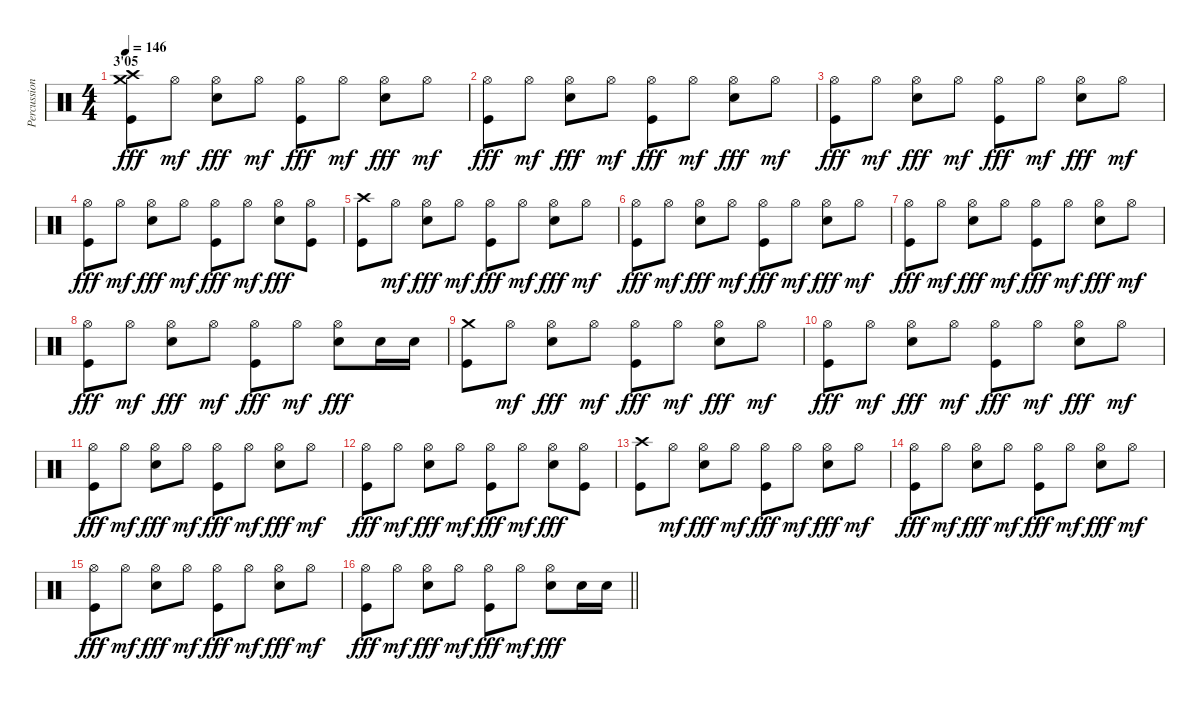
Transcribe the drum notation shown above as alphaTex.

\track ("Percussions" "Percussion") {instrument percussion}
\staff {score}
\articulation defaults
\ts (4 4)
\section ("" "3'05")
\tempo 146
\clef neutral
\ks c
("Crash high (hit)" "Crash medium (hit)" "Kick (hit)").8{dy fff} "Hi-Hat (open)".8{dy mf} ("Hi-Hat (open)" "Snare (hit) 2").8{dy fff} "Hi-Hat (open)".8{dy mf} ("Hi-Hat (open)" "Kick (hit)").8{dy fff} "Hi-Hat (open)".8{dy mf} ("Hi-Hat (open)" "Snare (hit) 2").8{dy fff} "Hi-Hat (open)".8{dy mf} |
("Hi-Hat (open)" "Kick (hit)").8{dy fff} "Hi-Hat (open)".8{dy mf} ("Hi-Hat (open)" "Snare (hit) 2").8{dy fff} "Hi-Hat (open)".8{dy mf} ("Hi-Hat (open)" "Kick (hit)").8{dy fff} "Hi-Hat (open)".8{dy mf} ("Hi-Hat (open)" "Snare (hit) 2").8{dy fff} "Hi-Hat (open)".8{dy mf} |
("Hi-Hat (open)" "Kick (hit)").8{dy fff} "Hi-Hat (open)".8{dy mf} ("Hi-Hat (open)" "Snare (hit) 2").8{dy fff} "Hi-Hat (open)".8{dy mf} ("Hi-Hat (open)" "Kick (hit)").8{dy fff} "Hi-Hat (open)".8{dy mf} ("Hi-Hat (open)" "Snare (hit) 2").8{dy fff} "Hi-Hat (open)".8{dy mf} |
("Hi-Hat (open)" "Kick (hit)").8{dy fff} "Hi-Hat (open)".8{dy mf} ("Hi-Hat (open)" "Snare (hit) 2").8{dy fff} "Hi-Hat (open)".8{dy mf} ("Hi-Hat (open)" "Kick (hit)").8{dy fff} "Hi-Hat (open)".8{dy mf} ("Hi-Hat (open)" "Snare (hit) 2").8{dy fff} ("Hi-Hat (open)" "Kick (hit)").8 |
("Crash high (hit)" "Kick (hit)").8 "Hi-Hat (open)".8{dy mf} ("Hi-Hat (open)" "Snare (hit) 2").8{dy fff} "Hi-Hat (open)".8{dy mf} ("Hi-Hat (open)" "Kick (hit)").8{dy fff} "Hi-Hat (open)".8{dy mf} ("Hi-Hat (open)" "Snare (hit) 2").8{dy fff} "Hi-Hat (open)".8{dy mf} |
("Hi-Hat (open)" "Kick (hit)").8{dy fff} "Hi-Hat (open)".8{dy mf} ("Hi-Hat (open)" "Snare (hit) 2").8{dy fff} "Hi-Hat (open)".8{dy mf} ("Hi-Hat (open)" "Kick (hit)").8{dy fff} "Hi-Hat (open)".8{dy mf} ("Hi-Hat (open)" "Snare (hit) 2").8{dy fff} "Hi-Hat (open)".8{dy mf} |
("Hi-Hat (open)" "Kick (hit)").8{dy fff} "Hi-Hat (open)".8{dy mf} ("Hi-Hat (open)" "Snare (hit) 2").8{dy fff} "Hi-Hat (open)".8{dy mf} ("Hi-Hat (open)" "Kick (hit)").8{dy fff} "Hi-Hat (open)".8{dy mf} ("Hi-Hat (open)" "Snare (hit) 2").8{dy fff} "Hi-Hat (open)".8{dy mf} |
("Hi-Hat (open)" "Kick (hit)").8{dy fff} "Hi-Hat (open)".8{dy mf} ("Hi-Hat (open)" "Snare (hit) 2").8{dy fff} "Hi-Hat (open)".8{dy mf} ("Hi-Hat (open)" "Kick (hit)").8{dy fff} "Hi-Hat (open)".8{dy mf} ("Hi-Hat (open)" "Snare (hit) 2").8{dy fff} "Snare (hit) 2".16 "Snare (hit) 2".16 |
("Crash medium (hit)" "Kick (hit)").8 "Hi-Hat (open)".8{dy mf} ("Hi-Hat (open)" "Snare (hit) 2").8{dy fff} "Hi-Hat (open)".8{dy mf} ("Hi-Hat (open)" "Kick (hit)").8{dy fff} "Hi-Hat (open)".8{dy mf} ("Hi-Hat (open)" "Snare (hit) 2").8{dy fff} "Hi-Hat (open)".8{dy mf} |
("Hi-Hat (open)" "Kick (hit)").8{dy fff} "Hi-Hat (open)".8{dy mf} ("Hi-Hat (open)" "Snare (hit) 2").8{dy fff} "Hi-Hat (open)".8{dy mf} ("Hi-Hat (open)" "Kick (hit)").8{dy fff} "Hi-Hat (open)".8{dy mf} ("Hi-Hat (open)" "Snare (hit) 2").8{dy fff} "Hi-Hat (open)".8{dy mf} |
("Hi-Hat (open)" "Kick (hit)").8{dy fff} "Hi-Hat (open)".8{dy mf} ("Hi-Hat (open)" "Snare (hit) 2").8{dy fff} "Hi-Hat (open)".8{dy mf} ("Hi-Hat (open)" "Kick (hit)").8{dy fff} "Hi-Hat (open)".8{dy mf} ("Hi-Hat (open)" "Snare (hit) 2").8{dy fff} "Hi-Hat (open)".8{dy mf} |
("Hi-Hat (open)" "Kick (hit)").8{dy fff} "Hi-Hat (open)".8{dy mf} ("Hi-Hat (open)" "Snare (hit) 2").8{dy fff} "Hi-Hat (open)".8{dy mf} ("Hi-Hat (open)" "Kick (hit)").8{dy fff} "Hi-Hat (open)".8{dy mf} ("Hi-Hat (open)" "Snare (hit) 2").8{dy fff} ("Hi-Hat (open)" "Kick (hit)").8 |
("Crash high (hit)" "Kick (hit)").8 "Hi-Hat (open)".8{dy mf} ("Hi-Hat (open)" "Snare (hit) 2").8{dy fff} "Hi-Hat (open)".8{dy mf} ("Hi-Hat (open)" "Kick (hit)").8{dy fff} "Hi-Hat (open)".8{dy mf} ("Hi-Hat (open)" "Snare (hit) 2").8{dy fff} "Hi-Hat (open)".8{dy mf} |
("Hi-Hat (open)" "Kick (hit)").8{dy fff} "Hi-Hat (open)".8{dy mf} ("Hi-Hat (open)" "Snare (hit) 2").8{dy fff} "Hi-Hat (open)".8{dy mf} ("Hi-Hat (open)" "Kick (hit)").8{dy fff} "Hi-Hat (open)".8{dy mf} ("Hi-Hat (open)" "Snare (hit) 2").8{dy fff} "Hi-Hat (open)".8{dy mf} |
("Hi-Hat (open)" "Kick (hit)").8{dy fff} "Hi-Hat (open)".8{dy mf} ("Hi-Hat (open)" "Snare (hit) 2").8{dy fff} "Hi-Hat (open)".8{dy mf} ("Hi-Hat (open)" "Kick (hit)").8{dy fff} "Hi-Hat (open)".8{dy mf} ("Hi-Hat (open)" "Snare (hit) 2").8{dy fff} "Hi-Hat (open)".8{dy mf} |
\barLineRight lightlight
("Hi-Hat (open)" "Kick (hit)").8{dy fff} "Hi-Hat (open)".8{dy mf} ("Hi-Hat (open)" "Snare (hit) 2").8{dy fff} "Hi-Hat (open)".8{dy mf} ("Hi-Hat (open)" "Kick (hit)").8{dy fff} "Hi-Hat (open)".8{dy mf} ("Hi-Hat (open)" "Snare (hit) 2").8{dy fff} "Snare (hit) 2".16 "Snare (hit) 2".16
